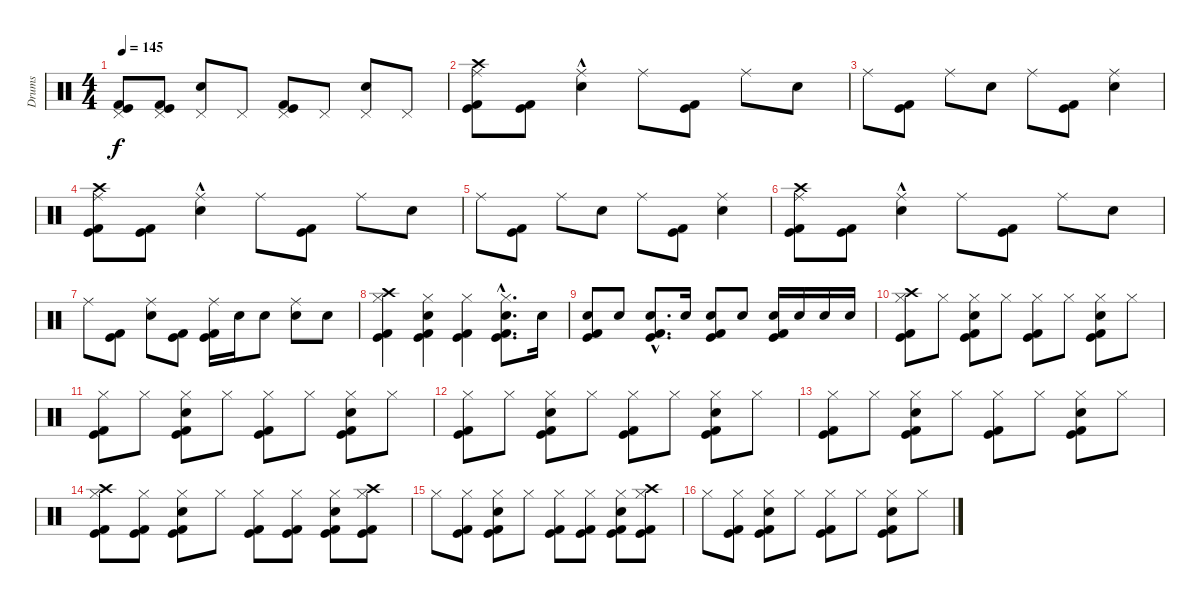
\track ("Drums" "Drums") {instrument percussion}
\staff {score}
\articulation defaults
\ts (4 4)
\tempo 145
\clef neutral
\ks c
("Kick (hit) 2" "Pedal Hi-Hat (hit)" "Kick (hit)").8{dy f} ("Pedal Hi-Hat (hit)" "Kick (hit) 2" "Kick (hit)").8 ("Electric Snare (hit)" "Pedal Hi-Hat (hit)").8 "Pedal Hi-Hat (hit)".8 ("Pedal Hi-Hat (hit)" "Kick (hit) 2" "Kick (hit)").8 "Pedal Hi-Hat (hit)".8 ("Electric Snare (hit)" "Pedal Hi-Hat (hit)").8 "Pedal Hi-Hat (hit)".8 |
("Ride (middle)" "Crash high (hit)" "Kick (hit) 2" "Kick (hit)").8 ("Kick (hit) 2" "Kick (hit)").8 ("Ride (middle)" "Electric Snare (hit)"{hac}).4 "Ride (middle)".8 ("Kick (hit) 2" "Kick (hit)").8 "Ride (middle)".8 "Electric Snare (hit)".8 |
"Ride (middle)".8 ("Kick (hit) 2" "Kick (hit)").8 "Ride (middle)".8 "Electric Snare (hit)".8 "Ride (middle)".8 ("Kick (hit) 2" "Kick (hit)").8 ("Ride (middle)" "Electric Snare (hit)").4 |
("Ride (middle)" "Crash high (hit)" "Kick (hit) 2" "Kick (hit)").8 ("Kick (hit) 2" "Kick (hit)").8 ("Ride (middle)" "Electric Snare (hit)"{hac}).4 "Ride (middle)".8 ("Kick (hit) 2" "Kick (hit)").8 "Ride (middle)".8 "Electric Snare (hit)".8 |
"Ride (middle)".8 ("Kick (hit) 2" "Kick (hit)").8 "Ride (middle)".8 "Electric Snare (hit)".8 "Ride (middle)".8 ("Kick (hit) 2" "Kick (hit)").8 ("Ride (middle)" "Electric Snare (hit)").4 |
("Ride (middle)" "Crash high (hit)" "Kick (hit) 2" "Kick (hit)").8 ("Kick (hit) 2" "Kick (hit)").8 ("Ride (middle)" "Electric Snare (hit)"{hac}).4 "Ride (middle)".8 ("Kick (hit) 2" "Kick (hit)").8 "Ride (middle)".8 "Electric Snare (hit)".8 |
"Ride (middle)".8 ("Kick (hit) 2" "Kick (hit)").8 ("Ride (middle)" "Electric Snare (hit)").8 ("Kick (hit) 2" "Kick (hit)").8 ("Ride (middle)" "Kick (hit) 2" "Kick (hit)").16 "Electric Snare (hit)".16 "Electric Snare (hit)".8 ("Ride (middle)" "Electric Snare (hit)").8 "Electric Snare (hit)".8 |
("Crash high (hit)" "Hi-Hat (closed)" "Kick (hit) 2" "Kick (hit)").4 ("Kick (hit) 2" "Hi-Hat (closed)" "Electric Snare (hit)" "Kick (hit)").4 ("Hi-Hat (closed)" "Kick (hit) 2" "Kick (hit)").4 ("Kick (hit) 2" "Electric Snare (hit)"{hac} "Hi-Hat (closed)" "Kick (hit)"{hac}).8{d} "Electric Snare (hit)".16 |
("Kick (hit) 2" "Electric Snare (hit)" "Kick (hit)").8 "Electric Snare (hit)".8 ("Electric Snare (hit)"{hac} "Kick (hit) 2" "Kick (hit)"{hac}).8{d} "Electric Snare (hit)".16 ("Kick (hit) 2" "Electric Snare (hit)" "Kick (hit)").8 "Electric Snare (hit)".8 ("Kick (hit) 2" "Electric Snare (hit)" "Kick (hit)").16 "Electric Snare (hit)".16 "Electric Snare (hit)".16 "Electric Snare (hit)".16 |
("Crash high (hit)" "Kick (hit) 2" "Hi-Hat (closed)" "Kick (hit)").8 "Hi-Hat (closed)".8 ("Electric Snare (hit)" "Hi-Hat (closed)" "Kick (hit) 2" "Kick (hit)").8 "Hi-Hat (closed)".8 ("Kick (hit) 2" "Hi-Hat (closed)" "Kick (hit)").8 "Hi-Hat (closed)".8 ("Hi-Hat (closed)" "Electric Snare (hit)" "Kick (hit) 2" "Kick (hit)").8 "Hi-Hat (closed)".8 |
("Kick (hit) 2" "Hi-Hat (closed)" "Kick (hit)").8 "Hi-Hat (closed)".8 ("Electric Snare (hit)" "Hi-Hat (closed)" "Kick (hit) 2" "Kick (hit)").8 "Hi-Hat (closed)".8 ("Kick (hit) 2" "Hi-Hat (closed)" "Kick (hit)").8 "Hi-Hat (closed)".8 ("Electric Snare (hit)" "Hi-Hat (closed)" "Kick (hit) 2" "Kick (hit)").8 "Hi-Hat (closed)".8 |
("Hi-Hat (closed)" "Kick (hit) 2" "Kick (hit)").8 "Hi-Hat (closed)".8 ("Hi-Hat (closed)" "Electric Snare (hit)" "Kick (hit) 2" "Kick (hit)").8 "Hi-Hat (closed)".8 ("Hi-Hat (closed)" "Kick (hit) 2" "Kick (hit)").8 "Hi-Hat (closed)".8 ("Hi-Hat (closed)" "Electric Snare (hit)" "Kick (hit) 2" "Kick (hit)").8 "Hi-Hat (closed)".8 |
("Hi-Hat (closed)" "Kick (hit) 2" "Kick (hit)").8 "Hi-Hat (closed)".8 ("Hi-Hat (closed)" "Electric Snare (hit)" "Kick (hit) 2" "Kick (hit)").8 "Hi-Hat (closed)".8 ("Hi-Hat (closed)" "Kick (hit) 2" "Kick (hit)").8 "Hi-Hat (closed)".8 ("Hi-Hat (closed)" "Electric Snare (hit)" "Kick (hit) 2" "Kick (hit)").8 "Hi-Hat (closed)".8 |
("Crash high (hit)" "Hi-Hat (closed)" "Kick (hit) 2" "Kick (hit)").8 ("Kick (hit) 2" "Hi-Hat (closed)" "Kick (hit)").8 ("Hi-Hat (closed)" "Electric Snare (hit)" "Kick (hit) 2" "Kick (hit)").8 "Hi-Hat (closed)".8 ("Hi-Hat (closed)" "Kick (hit) 2" "Kick (hit)").8 ("Kick (hit) 2" "Hi-Hat (closed)" "Kick (hit)").8 ("Hi-Hat (closed)" "Electric Snare (hit)" "Kick (hit) 2" "Kick (hit)").8 ("Crash high (hit)" "Kick (hit) 2" "Hi-Hat (closed)" "Kick (hit)").8 |
"Hi-Hat (closed)".8 ("Hi-Hat (closed)" "Kick (hit) 2" "Kick (hit)").8 ("Hi-Hat (closed)" "Electric Snare (hit)" "Kick (hit) 2" "Kick (hit)").8 "Hi-Hat (closed)".8 ("Hi-Hat (closed)" "Kick (hit) 2" "Kick (hit)").8 ("Kick (hit) 2" "Hi-Hat (closed)" "Kick (hit)").8 ("Hi-Hat (closed)" "Electric Snare (hit)" "Kick (hit) 2" "Kick (hit)").8 ("Kick (hit) 2" "Hi-Hat (closed)" "Crash high (hit)" "Kick (hit)").8 |
"Hi-Hat (closed)".8 ("Hi-Hat (closed)" "Kick (hit) 2" "Kick (hit)").8 ("Electric Snare (hit)" "Hi-Hat (closed)" "Kick (hit) 2" "Kick (hit)").8 "Hi-Hat (closed)".8 ("Kick (hit) 2" "Hi-Hat (closed)" "Kick (hit)").8 "Hi-Hat (closed)".8 ("Hi-Hat (closed)" "Electric Snare (hit)" "Kick (hit) 2" "Kick (hit)").8 "Hi-Hat (closed)".8
